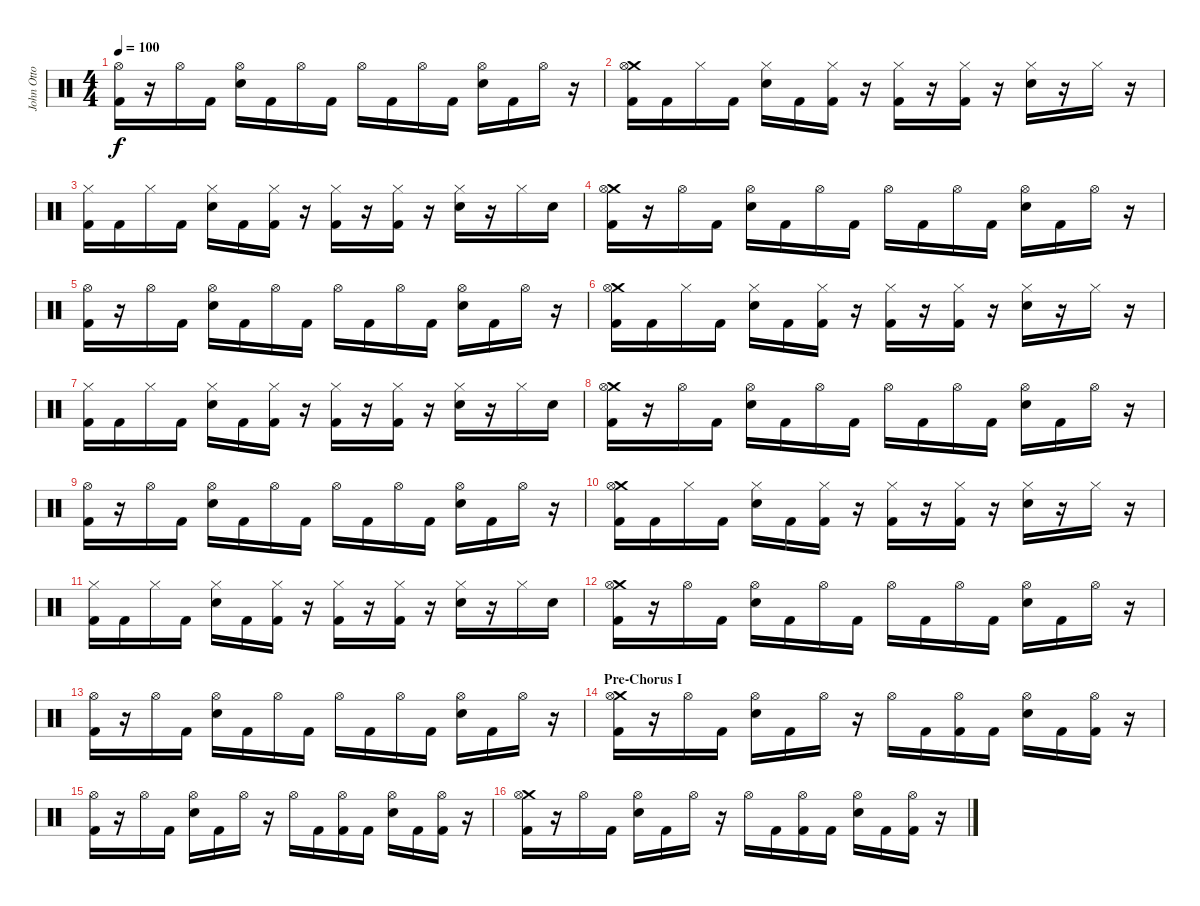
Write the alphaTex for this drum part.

\track ("John Otto - Drums" "John Otto ") {instrument percussion}
\staff {score}
\articulation defaults
\ts (4 4)
\tempo 100
\clef neutral
\ks c
("Hi-Hat (open)" "Kick (hit) 2").16{dy f} r.16 "Hi-Hat (open)".16 "Kick (hit) 2".16 ("Hi-Hat (open)" "Snare (hit) 2").16 "Kick (hit) 2".16 "Hi-Hat (open)".16 "Kick (hit) 2".16 "Hi-Hat (open)".16 "Kick (hit) 2".16 "Hi-Hat (open)".16 "Kick (hit) 2".16 ("Hi-Hat (open)" "Snare (hit) 2").16 "Kick (hit) 2".16 "Hi-Hat (open)".16 r.16 |
("Crash medium (hit)" "Hi-Hat (open)" "Kick (hit) 2").16 "Kick (hit) 2".16 "Hi-Hat (closed)".16 "Kick (hit) 2".16 ("Hi-Hat (closed)" "Snare (hit) 2").16 "Kick (hit) 2".16 ("Hi-Hat (closed)" "Kick (hit) 2").16 r.16 ("Hi-Hat (closed)" "Kick (hit) 2").16 r.16 ("Hi-Hat (closed)" "Kick (hit) 2").16 r.16 ("Hi-Hat (closed)" "Snare (hit) 2").16 r.16 "Hi-Hat (closed)".16 r.16 |
("Hi-Hat (closed)" "Kick (hit) 2").16 "Kick (hit) 2".16 "Hi-Hat (closed)".16 "Kick (hit) 2".16 ("Hi-Hat (closed)" "Snare (hit) 2").16 "Kick (hit) 2".16 ("Hi-Hat (closed)" "Kick (hit) 2").16 r.16 ("Hi-Hat (closed)" "Kick (hit) 2").16 r.16 ("Hi-Hat (closed)" "Kick (hit) 2").16 r.16 ("Hi-Hat (closed)" "Snare (hit) 2").16 r.16 "Hi-Hat (closed)".16 "Snare (hit) 2".16 |
("Crash medium (hit)" "Hi-Hat (open)" "Kick (hit) 2").16 r.16 "Hi-Hat (open)".16 "Kick (hit) 2".16 ("Hi-Hat (open)" "Snare (hit) 2").16 "Kick (hit) 2".16 "Hi-Hat (open)".16 "Kick (hit) 2".16 "Hi-Hat (open)".16 "Kick (hit) 2".16 "Hi-Hat (open)".16 "Kick (hit) 2".16 ("Hi-Hat (open)" "Snare (hit) 2").16 "Kick (hit) 2".16 "Hi-Hat (open)".16 r.16 |
("Hi-Hat (open)" "Kick (hit) 2").16 r.16 "Hi-Hat (open)".16 "Kick (hit) 2".16 ("Hi-Hat (open)" "Snare (hit) 2").16 "Kick (hit) 2".16 "Hi-Hat (open)".16 "Kick (hit) 2".16 "Hi-Hat (open)".16 "Kick (hit) 2".16 "Hi-Hat (open)".16 "Kick (hit) 2".16 ("Hi-Hat (open)" "Snare (hit) 2").16 "Kick (hit) 2".16 "Hi-Hat (open)".16 r.16 |
("Crash medium (hit)" "Hi-Hat (open)" "Kick (hit) 2").16 "Kick (hit) 2".16 "Hi-Hat (closed)".16 "Kick (hit) 2".16 ("Hi-Hat (closed)" "Snare (hit) 2").16 "Kick (hit) 2".16 ("Hi-Hat (closed)" "Kick (hit) 2").16 r.16 ("Hi-Hat (closed)" "Kick (hit) 2").16 r.16 ("Hi-Hat (closed)" "Kick (hit) 2").16 r.16 ("Hi-Hat (closed)" "Snare (hit) 2").16 r.16 "Hi-Hat (closed)".16 r.16 |
("Hi-Hat (closed)" "Kick (hit) 2").16 "Kick (hit) 2".16 "Hi-Hat (closed)".16 "Kick (hit) 2".16 ("Hi-Hat (closed)" "Snare (hit) 2").16 "Kick (hit) 2".16 ("Hi-Hat (closed)" "Kick (hit) 2").16 r.16 ("Hi-Hat (closed)" "Kick (hit) 2").16 r.16 ("Hi-Hat (closed)" "Kick (hit) 2").16 r.16 ("Hi-Hat (closed)" "Snare (hit) 2").16 r.16 "Hi-Hat (closed)".16 "Snare (hit) 2".16 |
("Crash medium (hit)" "Hi-Hat (open)" "Kick (hit) 2").16 r.16 "Hi-Hat (open)".16 "Kick (hit) 2".16 ("Hi-Hat (open)" "Snare (hit) 2").16 "Kick (hit) 2".16 "Hi-Hat (open)".16 "Kick (hit) 2".16 "Hi-Hat (open)".16 "Kick (hit) 2".16 "Hi-Hat (open)".16 "Kick (hit) 2".16 ("Hi-Hat (open)" "Snare (hit) 2").16 "Kick (hit) 2".16 "Hi-Hat (open)".16 r.16 |
("Hi-Hat (open)" "Kick (hit) 2").16 r.16 "Hi-Hat (open)".16 "Kick (hit) 2".16 ("Hi-Hat (open)" "Snare (hit) 2").16 "Kick (hit) 2".16 "Hi-Hat (open)".16 "Kick (hit) 2".16 "Hi-Hat (open)".16 "Kick (hit) 2".16 "Hi-Hat (open)".16 "Kick (hit) 2".16 ("Hi-Hat (open)" "Snare (hit) 2").16 "Kick (hit) 2".16 "Hi-Hat (open)".16 r.16 |
("Crash medium (hit)" "Hi-Hat (open)" "Kick (hit) 2").16 "Kick (hit) 2".16 "Hi-Hat (closed)".16 "Kick (hit) 2".16 ("Hi-Hat (closed)" "Snare (hit) 2").16 "Kick (hit) 2".16 ("Hi-Hat (closed)" "Kick (hit) 2").16 r.16 ("Hi-Hat (closed)" "Kick (hit) 2").16 r.16 ("Hi-Hat (closed)" "Kick (hit) 2").16 r.16 ("Hi-Hat (closed)" "Snare (hit) 2").16 r.16 "Hi-Hat (closed)".16 r.16 |
("Hi-Hat (closed)" "Kick (hit) 2").16 "Kick (hit) 2".16 "Hi-Hat (closed)".16 "Kick (hit) 2".16 ("Hi-Hat (closed)" "Snare (hit) 2").16 "Kick (hit) 2".16 ("Hi-Hat (closed)" "Kick (hit) 2").16 r.16 ("Hi-Hat (closed)" "Kick (hit) 2").16 r.16 ("Hi-Hat (closed)" "Kick (hit) 2").16 r.16 ("Hi-Hat (closed)" "Snare (hit) 2").16 r.16 "Hi-Hat (closed)".16 "Snare (hit) 2".16 |
("Crash medium (hit)" "Hi-Hat (open)" "Kick (hit) 2").16 r.16 "Hi-Hat (open)".16 "Kick (hit) 2".16 ("Hi-Hat (open)" "Snare (hit) 2").16 "Kick (hit) 2".16 "Hi-Hat (open)".16 "Kick (hit) 2".16 "Hi-Hat (open)".16 "Kick (hit) 2".16 "Hi-Hat (open)".16 "Kick (hit) 2".16 ("Hi-Hat (open)" "Snare (hit) 2").16 "Kick (hit) 2".16 "Hi-Hat (open)".16 r.16 |
("Hi-Hat (open)" "Kick (hit) 2").16 r.16 "Hi-Hat (open)".16 "Kick (hit) 2".16 ("Hi-Hat (open)" "Snare (hit) 2").16 "Kick (hit) 2".16 "Hi-Hat (open)".16 "Kick (hit) 2".16 "Hi-Hat (open)".16 "Kick (hit) 2".16 "Hi-Hat (open)".16 "Kick (hit) 2".16 ("Hi-Hat (open)" "Snare (hit) 2").16 "Kick (hit) 2".16 "Hi-Hat (open)".16 r.16 |
\section ("" "Pre-Chorus I")
("Crash medium (hit)" "Hi-Hat (open)" "Kick (hit) 2").16 r.16 "Hi-Hat (open)".16 "Kick (hit) 2".16 ("Hi-Hat (open)" "Snare (hit) 2").16 "Kick (hit) 2".16 "Hi-Hat (open)".16 r.16 "Hi-Hat (open)".16 "Kick (hit) 2".16 ("Hi-Hat (open)" "Kick (hit) 2").16 "Kick (hit) 2".16 ("Hi-Hat (open)" "Snare (hit) 2").16 "Kick (hit) 2".16 ("Hi-Hat (open)" "Kick (hit) 2").16 r.16 |
("Hi-Hat (open)" "Kick (hit) 2").16 r.16 "Hi-Hat (open)".16 "Kick (hit) 2".16 ("Hi-Hat (open)" "Snare (hit) 2").16 "Kick (hit) 2".16 "Hi-Hat (open)".16 r.16 "Hi-Hat (open)".16 "Kick (hit) 2".16 ("Hi-Hat (open)" "Kick (hit) 2").16 "Kick (hit) 2".16 ("Hi-Hat (open)" "Snare (hit) 2").16 "Kick (hit) 2".16 ("Hi-Hat (open)" "Kick (hit) 2").16 r.16 |
("Crash medium (hit)" "Hi-Hat (open)" "Kick (hit) 2").16 r.16 "Hi-Hat (open)".16 "Kick (hit) 2".16 ("Hi-Hat (open)" "Snare (hit) 2").16 "Kick (hit) 2".16 "Hi-Hat (open)".16 r.16 "Hi-Hat (open)".16 "Kick (hit) 2".16 ("Hi-Hat (open)" "Kick (hit) 2").16 "Kick (hit) 2".16 ("Hi-Hat (open)" "Snare (hit) 2").16 "Kick (hit) 2".16 ("Hi-Hat (open)" "Kick (hit) 2").16 r.16
